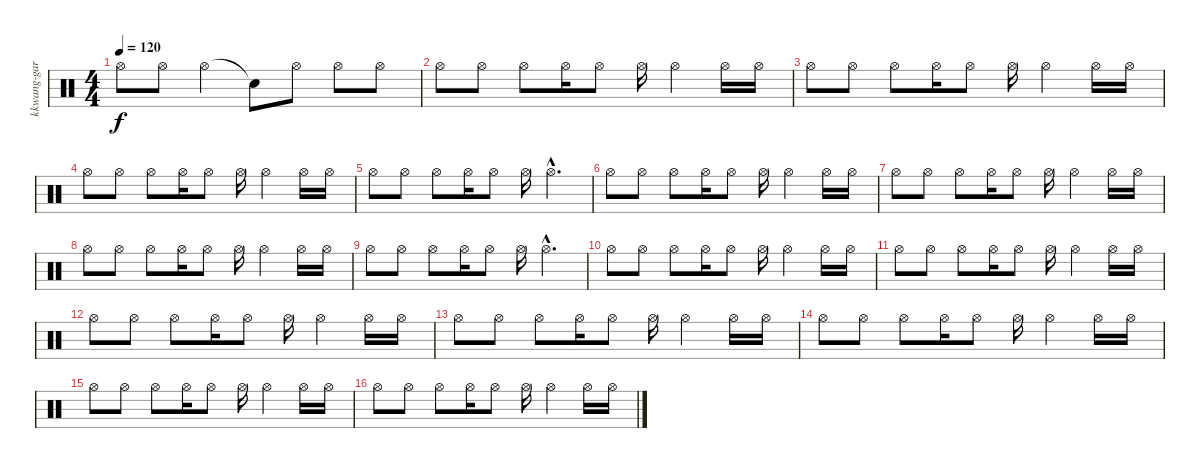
\track ("kkwang-gari" "kkwang-gar") {instrument percussion}
\staff {score}
\articulation defaults
\ts (4 4)
\tempo 120
\clef neutral
\ks c "Hi-Hat (open)".8{dy f} "Hi-Hat (open)".8 "Hi-Hat (open)".4 "Snare (hit)"{t}.8 "Hi-Hat (open)".8 "Hi-Hat (open)".8 "Hi-Hat (open)".8
|
"Hi-Hat (open)".8 "Hi-Hat (open)".8 "Hi-Hat (open)".8 "Hi-Hat (open)".16 "Hi-Hat (open)".8 "Hi-Hat (open)".16 "Hi-Hat (open)".4 "Hi-Hat (open)".16 "Hi-Hat (open)".16 |
"Hi-Hat (open)".8 "Hi-Hat (open)".8 "Hi-Hat (open)".8 "Hi-Hat (open)".16 "Hi-Hat (open)".8 "Hi-Hat (open)".16 "Hi-Hat (open)".4 "Hi-Hat (open)".16 "Hi-Hat (open)".16 |
"Hi-Hat (open)".8 "Hi-Hat (open)".8 "Hi-Hat (open)".8 "Hi-Hat (open)".16 "Hi-Hat (open)".8 "Hi-Hat (open)".16 "Hi-Hat (open)".4 "Hi-Hat (open)".16 "Hi-Hat (open)".16 |
"Hi-Hat (open)".8 "Hi-Hat (open)".8 "Hi-Hat (open)".8 "Hi-Hat (open)".16 "Hi-Hat (open)".8 "Hi-Hat (open)".16 "Hi-Hat (open)"{hac}.4{d} |
"Hi-Hat (open)".8 "Hi-Hat (open)".8 "Hi-Hat (open)".8 "Hi-Hat (open)".16 "Hi-Hat (open)".8 "Hi-Hat (open)".16 "Hi-Hat (open)".4 "Hi-Hat (open)".16 "Hi-Hat (open)".16 |
"Hi-Hat (open)".8 "Hi-Hat (open)".8 "Hi-Hat (open)".8 "Hi-Hat (open)".16 "Hi-Hat (open)".8 "Hi-Hat (open)".16 "Hi-Hat (open)".4 "Hi-Hat (open)".16 "Hi-Hat (open)".16 |
"Hi-Hat (open)".8 "Hi-Hat (open)".8 "Hi-Hat (open)".8 "Hi-Hat (open)".16 "Hi-Hat (open)".8 "Hi-Hat (open)".16 "Hi-Hat (open)".4 "Hi-Hat (open)".16 "Hi-Hat (open)".16 |
"Hi-Hat (open)".8 "Hi-Hat (open)".8 "Hi-Hat (open)".8 "Hi-Hat (open)".16 "Hi-Hat (open)".8 "Hi-Hat (open)".16 "Hi-Hat (open)"{hac}.4{d} |
"Hi-Hat (open)".8 "Hi-Hat (open)".8 "Hi-Hat (open)".8 "Hi-Hat (open)".16 "Hi-Hat (open)".8 "Hi-Hat (open)".16 "Hi-Hat (open)".4 "Hi-Hat (open)".16 "Hi-Hat (open)".16 |
"Hi-Hat (open)".8 "Hi-Hat (open)".8 "Hi-Hat (open)".8 "Hi-Hat (open)".16 "Hi-Hat (open)".8 "Hi-Hat (open)".16 "Hi-Hat (open)".4 "Hi-Hat (open)".16 "Hi-Hat (open)".16 |
"Hi-Hat (open)".8 "Hi-Hat (open)".8 "Hi-Hat (open)".8 "Hi-Hat (open)".16 "Hi-Hat (open)".8 "Hi-Hat (open)".16 "Hi-Hat (open)".4 "Hi-Hat (open)".16 "Hi-Hat (open)".16 |
"Hi-Hat (open)".8 "Hi-Hat (open)".8 "Hi-Hat (open)".8 "Hi-Hat (open)".16 "Hi-Hat (open)".8 "Hi-Hat (open)".16 "Hi-Hat (open)".4 "Hi-Hat (open)".16 "Hi-Hat (open)".16 |
"Hi-Hat (open)".8 "Hi-Hat (open)".8 "Hi-Hat (open)".8 "Hi-Hat (open)".16 "Hi-Hat (open)".8 "Hi-Hat (open)".16 "Hi-Hat (open)".4 "Hi-Hat (open)".16 "Hi-Hat (open)".16 |
"Hi-Hat (open)".8 "Hi-Hat (open)".8 "Hi-Hat (open)".8 "Hi-Hat (open)".16 "Hi-Hat (open)".8 "Hi-Hat (open)".16 "Hi-Hat (open)".4 "Hi-Hat (open)".16 "Hi-Hat (open)".16 |
"Hi-Hat (open)".8 "Hi-Hat (open)".8 "Hi-Hat (open)".8 "Hi-Hat (open)".16 "Hi-Hat (open)".8 "Hi-Hat (open)".16 "Hi-Hat (open)".4 "Hi-Hat (open)".16 "Hi-Hat (open)".16
